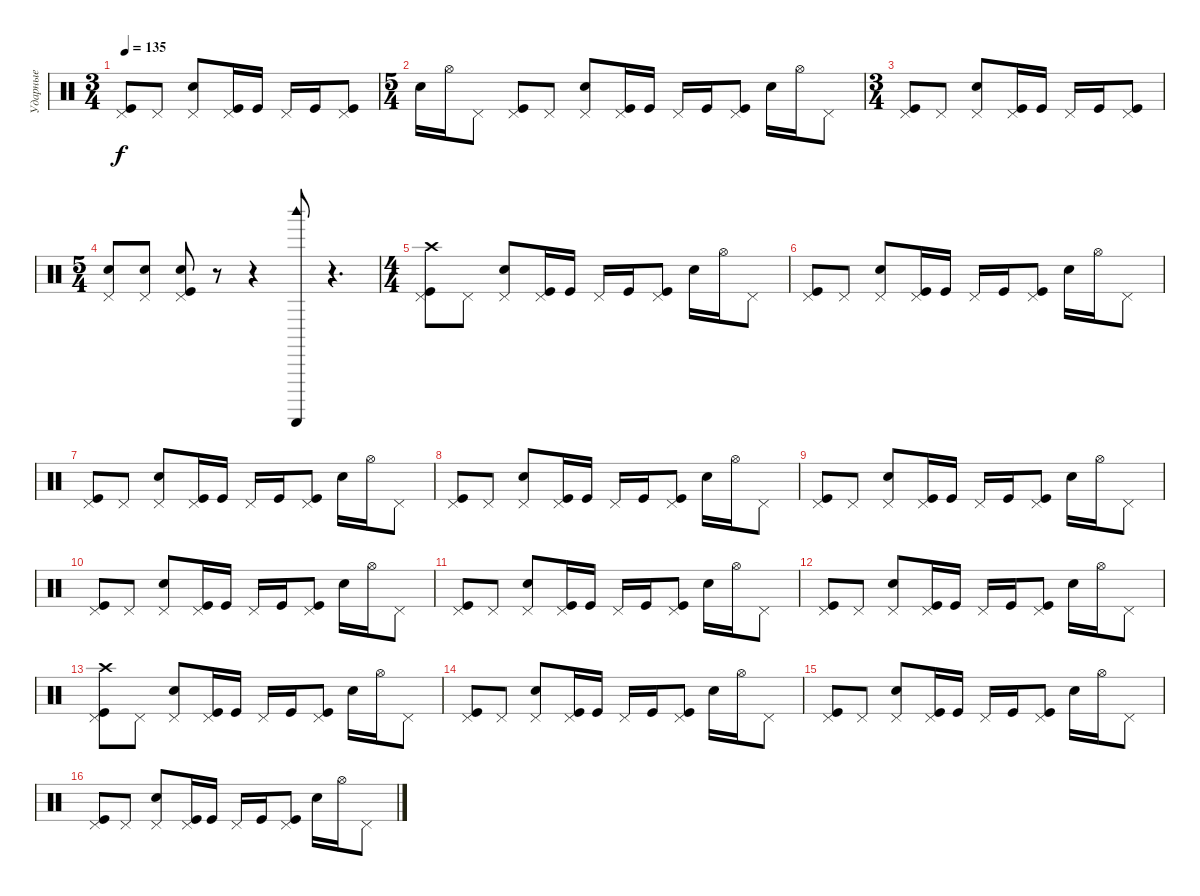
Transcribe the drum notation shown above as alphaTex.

\track ("Ударные" "Ударные") {instrument percussion}
\staff {score}
\articulation defaults
\ts (3 4)
\tempo 135
\clef neutral
\ks c
("Kick (hit)" "Pedal Hi-Hat (hit)").8{dy f} "Pedal Hi-Hat (hit)".8 ("Pedal Hi-Hat (hit)" "Electric Snare (hit)").8 ("Kick (hit)" "Pedal Hi-Hat (hit)").16 "Kick (hit)".16 "Pedal Hi-Hat (hit)".16 "Kick (hit)".16 ("Kick (hit)" "Pedal Hi-Hat (hit)").8 |
\ts (5 4)
"Electric Snare (hit)".16 "Hi-Hat (open)".16 "Pedal Hi-Hat (hit)".8 ("Kick (hit)" "Pedal Hi-Hat (hit)").8 "Pedal Hi-Hat (hit)".8 ("Pedal Hi-Hat (hit)" "Electric Snare (hit)").8 ("Kick (hit)" "Pedal Hi-Hat (hit)").16 "Kick (hit)".16 "Pedal Hi-Hat (hit)".16 "Kick (hit)".16 ("Kick (hit)" "Pedal Hi-Hat (hit)").8 "Electric Snare (hit)".16 "Hi-Hat (open)".16 "Pedal Hi-Hat (hit)".8 |
\ts (3 4)
("Kick (hit)" "Pedal Hi-Hat (hit)").8 "Pedal Hi-Hat (hit)".8 ("Pedal Hi-Hat (hit)" "Electric Snare (hit)").8 ("Kick (hit)" "Pedal Hi-Hat (hit)").16 "Kick (hit)".16 "Pedal Hi-Hat (hit)".16 "Kick (hit)".16 ("Kick (hit)" "Pedal Hi-Hat (hit)").8 |
\ts (5 4)
("Pedal Hi-Hat (hit)" "Electric Snare (hit)").8 ("Pedal Hi-Hat (hit)" "Electric Snare (hit)").8 ("Kick (hit)" "Pedal Hi-Hat (hit)" "Electric Snare (hit)").8 r.8 r.4 ("Woodblock high (hit)" "Guiro (scrap-return)").8 r.4{d} |
\ts (4 4)
("Kick (hit)" "Pedal Hi-Hat (hit)" "Crash high (hit)").8 "Pedal Hi-Hat (hit)".8 ("Pedal Hi-Hat (hit)" "Electric Snare (hit)").8 ("Kick (hit)" "Pedal Hi-Hat (hit)").16 "Kick (hit)".16 "Pedal Hi-Hat (hit)".16 "Kick (hit)".16 ("Kick (hit)" "Pedal Hi-Hat (hit)").8 "Electric Snare (hit)".16 "Hi-Hat (open)".16 "Pedal Hi-Hat (hit)".8 |
("Kick (hit)" "Pedal Hi-Hat (hit)").8 "Pedal Hi-Hat (hit)".8 ("Pedal Hi-Hat (hit)" "Electric Snare (hit)").8 ("Kick (hit)" "Pedal Hi-Hat (hit)").16 "Kick (hit)".16 "Pedal Hi-Hat (hit)".16 "Kick (hit)".16 ("Kick (hit)" "Pedal Hi-Hat (hit)").8 "Electric Snare (hit)".16 "Hi-Hat (open)".16 "Pedal Hi-Hat (hit)".8 |
("Kick (hit)" "Pedal Hi-Hat (hit)").8 "Pedal Hi-Hat (hit)".8 ("Pedal Hi-Hat (hit)" "Electric Snare (hit)").8 ("Kick (hit)" "Pedal Hi-Hat (hit)").16 "Kick (hit)".16 "Pedal Hi-Hat (hit)".16 "Kick (hit)".16 ("Kick (hit)" "Pedal Hi-Hat (hit)").8 "Electric Snare (hit)".16 "Hi-Hat (open)".16 "Pedal Hi-Hat (hit)".8 |
("Kick (hit)" "Pedal Hi-Hat (hit)").8 "Pedal Hi-Hat (hit)".8 ("Pedal Hi-Hat (hit)" "Electric Snare (hit)").8 ("Kick (hit)" "Pedal Hi-Hat (hit)").16 "Kick (hit)".16 "Pedal Hi-Hat (hit)".16 "Kick (hit)".16 ("Kick (hit)" "Pedal Hi-Hat (hit)").8 "Electric Snare (hit)".16 "Hi-Hat (open)".16 "Pedal Hi-Hat (hit)".8 |
("Kick (hit)" "Pedal Hi-Hat (hit)").8 "Pedal Hi-Hat (hit)".8 ("Pedal Hi-Hat (hit)" "Electric Snare (hit)").8 ("Kick (hit)" "Pedal Hi-Hat (hit)").16 "Kick (hit)".16 "Pedal Hi-Hat (hit)".16 "Kick (hit)".16 ("Kick (hit)" "Pedal Hi-Hat (hit)").8 "Electric Snare (hit)".16 "Hi-Hat (open)".16 "Pedal Hi-Hat (hit)".8 |
("Kick (hit)" "Pedal Hi-Hat (hit)").8 "Pedal Hi-Hat (hit)".8 ("Pedal Hi-Hat (hit)" "Electric Snare (hit)").8 ("Kick (hit)" "Pedal Hi-Hat (hit)").16 "Kick (hit)".16 "Pedal Hi-Hat (hit)".16 "Kick (hit)".16 ("Kick (hit)" "Pedal Hi-Hat (hit)").8 "Electric Snare (hit)".16 "Hi-Hat (open)".16 "Pedal Hi-Hat (hit)".8 |
("Kick (hit)" "Pedal Hi-Hat (hit)").8 "Pedal Hi-Hat (hit)".8 ("Pedal Hi-Hat (hit)" "Electric Snare (hit)").8 ("Kick (hit)" "Pedal Hi-Hat (hit)").16 "Kick (hit)".16 "Pedal Hi-Hat (hit)".16 "Kick (hit)".16 ("Kick (hit)" "Pedal Hi-Hat (hit)").8 "Electric Snare (hit)".16 "Hi-Hat (open)".16 "Pedal Hi-Hat (hit)".8 |
("Kick (hit)" "Pedal Hi-Hat (hit)").8 "Pedal Hi-Hat (hit)".8 ("Pedal Hi-Hat (hit)" "Electric Snare (hit)").8 ("Kick (hit)" "Pedal Hi-Hat (hit)").16 "Kick (hit)".16 "Pedal Hi-Hat (hit)".16 "Kick (hit)".16 ("Kick (hit)" "Pedal Hi-Hat (hit)").8 "Electric Snare (hit)".16 "Hi-Hat (open)".16 "Pedal Hi-Hat (hit)".8 |
("Kick (hit)" "Pedal Hi-Hat (hit)" "Crash high (hit)").8 "Pedal Hi-Hat (hit)".8 ("Pedal Hi-Hat (hit)" "Electric Snare (hit)").8 ("Kick (hit)" "Pedal Hi-Hat (hit)").16 "Kick (hit)".16 "Pedal Hi-Hat (hit)".16 "Kick (hit)".16 ("Kick (hit)" "Pedal Hi-Hat (hit)").8 "Electric Snare (hit)".16 "Hi-Hat (open)".16 "Pedal Hi-Hat (hit)".8 |
("Kick (hit)" "Pedal Hi-Hat (hit)").8 "Pedal Hi-Hat (hit)".8 ("Pedal Hi-Hat (hit)" "Electric Snare (hit)").8 ("Kick (hit)" "Pedal Hi-Hat (hit)").16 "Kick (hit)".16 "Pedal Hi-Hat (hit)".16 "Kick (hit)".16 ("Kick (hit)" "Pedal Hi-Hat (hit)").8 "Electric Snare (hit)".16 "Hi-Hat (open)".16 "Pedal Hi-Hat (hit)".8 |
("Kick (hit)" "Pedal Hi-Hat (hit)").8 "Pedal Hi-Hat (hit)".8 ("Pedal Hi-Hat (hit)" "Electric Snare (hit)").8 ("Kick (hit)" "Pedal Hi-Hat (hit)").16 "Kick (hit)".16 "Pedal Hi-Hat (hit)".16 "Kick (hit)".16 ("Kick (hit)" "Pedal Hi-Hat (hit)").8 "Electric Snare (hit)".16 "Hi-Hat (open)".16 "Pedal Hi-Hat (hit)".8 |
("Kick (hit)" "Pedal Hi-Hat (hit)").8 "Pedal Hi-Hat (hit)".8 ("Pedal Hi-Hat (hit)" "Electric Snare (hit)").8 ("Kick (hit)" "Pedal Hi-Hat (hit)").16 "Kick (hit)".16 "Pedal Hi-Hat (hit)".16 "Kick (hit)".16 ("Kick (hit)" "Pedal Hi-Hat (hit)").8 "Electric Snare (hit)".16 "Hi-Hat (open)".16 "Pedal Hi-Hat (hit)".8
